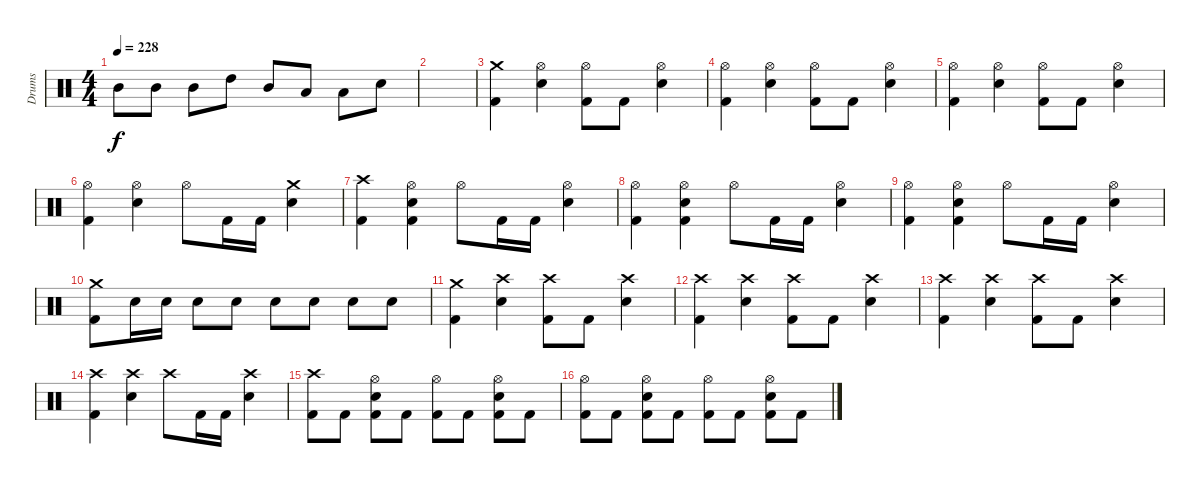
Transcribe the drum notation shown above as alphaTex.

\track ("Drums" "Drums") {instrument percussion}
\staff {score}
\articulation defaults
\ts (4 4)
\tempo 228
\clef neutral
\ks c "Mid Tom (hit)".8{dy f} "Mid Tom (hit)".8 "Mid Tom (hit)".8 "High Tom (hit)".8 "Mid Tom (hit)".8 "Low Tom (hit)".8 "Low Tom (hit)".8 "Electric Snare (hit)".8
|
|
("Crash medium (hit)" "Kick (hit) 2").4 ("Electric Snare (hit)" "Hi-Hat (open)").4 ("Hi-Hat (open)" "Kick (hit) 2").8 "Kick (hit) 2".8 ("Hi-Hat (open)" "Electric Snare (hit)").4 |
("Hi-Hat (open)" "Kick (hit) 2").4 ("Electric Snare (hit)" "Hi-Hat (open)").4 ("Hi-Hat (open)" "Kick (hit) 2").8 "Kick (hit) 2".8 ("Hi-Hat (open)" "Electric Snare (hit)").4 |
("Hi-Hat (open)" "Kick (hit) 2").4 ("Electric Snare (hit)" "Hi-Hat (open)").4 ("Hi-Hat (open)" "Kick (hit) 2").8 "Kick (hit) 2".8 ("Hi-Hat (open)" "Electric Snare (hit)").4 |
("Hi-Hat (open)" "Kick (hit) 2").4 ("Electric Snare (hit)" "Hi-Hat (open)").4 "Hi-Hat (open)".8 "Kick (hit) 2".16 "Kick (hit) 2".16 ("Crash medium (hit)" "Electric Snare (hit)").4 |
("Crash high (hit)" "Kick (hit) 2").4 ("Electric Snare (hit)" "Kick (hit) 2" "Hi-Hat (open)").4 "Hi-Hat (open)".8 "Kick (hit) 2".16 "Kick (hit) 2".16 ("Hi-Hat (open)" "Electric Snare (hit)").4 |
("Hi-Hat (open)" "Kick (hit) 2").4 ("Electric Snare (hit)" "Kick (hit) 2" "Hi-Hat (open)").4 "Hi-Hat (open)".8 "Kick (hit) 2".16 "Kick (hit) 2".16 ("Hi-Hat (open)" "Electric Snare (hit)").4 |
("Hi-Hat (open)" "Kick (hit) 2").4 ("Electric Snare (hit)" "Kick (hit) 2" "Hi-Hat (open)").4 "Hi-Hat (open)".8 "Kick (hit) 2".16 "Kick (hit) 2".16 ("Hi-Hat (open)" "Electric Snare (hit)").4 |
("Crash medium (hit)" "Kick (hit) 2").8 "Electric Snare (hit)".16 "Electric Snare (hit)".16 "Electric Snare (hit)".8 "Electric Snare (hit)".8 "Electric Snare (hit)".8 "Electric Snare (hit)".8 "Electric Snare (hit)".8 "Electric Snare (hit)".8 |
("Crash medium (hit)" "Kick (hit) 2").4 ("Electric Snare (hit)" "Crash high (hit)").4 ("Crash high (hit)" "Kick (hit) 2").8 "Kick (hit) 2".8 ("Crash high (hit)" "Electric Snare (hit)").4 |
("Crash high (hit)" "Kick (hit) 2").4 ("Electric Snare (hit)" "Crash high (hit)").4 ("Crash high (hit)" "Kick (hit) 2").8 "Kick (hit) 2".8 ("Crash high (hit)" "Electric Snare (hit)").4 |
("Crash high (hit)" "Kick (hit) 2").4 ("Electric Snare (hit)" "Crash high (hit)").4 ("Crash high (hit)" "Kick (hit) 2").8 "Kick (hit) 2".8 ("Crash high (hit)" "Electric Snare (hit)").4 |
("Crash high (hit)" "Kick (hit) 2").4 ("Electric Snare (hit)" "Crash high (hit)").4 "Crash high (hit)".8 "Kick (hit) 2".16 "Kick (hit) 2".16 ("Crash high (hit)" "Electric Snare (hit)").4 |
("Crash high (hit)" "Kick (hit) 2").8 "Kick (hit) 2".8 ("Electric Snare (hit)" "Hi-Hat (open)" "Kick (hit) 2").8 "Kick (hit) 2".8 ("Hi-Hat (open)" "Kick (hit) 2").8 "Kick (hit) 2".8 ("Electric Snare (hit)" "Hi-Hat (open)" "Kick (hit) 2").8 "Kick (hit) 2".8 |
("Hi-Hat (open)" "Kick (hit) 2").8 "Kick (hit) 2".8 ("Electric Snare (hit)" "Hi-Hat (open)" "Kick (hit) 2").8 "Kick (hit) 2".8 ("Hi-Hat (open)" "Kick (hit) 2").8 "Kick (hit) 2".8 ("Electric Snare (hit)" "Hi-Hat (open)" "Kick (hit) 2").8 "Kick (hit) 2".8
